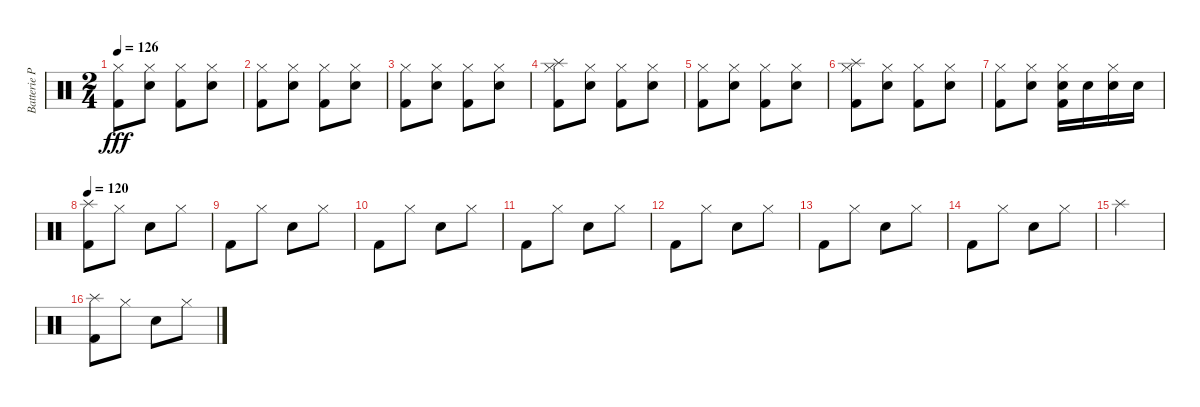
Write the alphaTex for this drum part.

\track ("Batterie Pako" "Batterie P") {instrument percussion}
\staff {score}
\articulation defaults
\ts (2 4)
\tempo 126
\clef neutral
\ks c
("Hi-Hat (closed)" "Kick (hit) 2").8{dy fff} ("Hi-Hat (closed)" "Electric Snare (hit)").8 ("Hi-Hat (closed)" "Kick (hit) 2").8 ("Hi-Hat (closed)" "Electric Snare (hit)").8 |
("Hi-Hat (closed)" "Kick (hit) 2").8 ("Hi-Hat (closed)" "Electric Snare (hit)").8 ("Hi-Hat (closed)" "Kick (hit) 2").8 ("Hi-Hat (closed)" "Electric Snare (hit)").8 |
("Hi-Hat (closed)" "Kick (hit) 2").8 ("Hi-Hat (closed)" "Electric Snare (hit)").8 ("Hi-Hat (closed)" "Kick (hit) 2").8 ("Hi-Hat (closed)" "Electric Snare (hit)").8 |
("Splash (hit)" "Hi-Hat (closed)" "Kick (hit) 2").8 ("Hi-Hat (closed)" "Electric Snare (hit)").8 ("Hi-Hat (closed)" "Kick (hit) 2").8 ("Hi-Hat (closed)" "Electric Snare (hit)").8 |
("Hi-Hat (closed)" "Kick (hit) 2").8 ("Hi-Hat (closed)" "Electric Snare (hit)").8 ("Hi-Hat (closed)" "Kick (hit) 2").8 ("Hi-Hat (closed)" "Electric Snare (hit)").8 |
("Splash (hit)" "Hi-Hat (closed)" "Kick (hit) 2").8 ("Hi-Hat (closed)" "Electric Snare (hit)").8 ("Hi-Hat (closed)" "Kick (hit) 2").8 ("Hi-Hat (closed)" "Electric Snare (hit)").8 |
("Hi-Hat (closed)" "Kick (hit) 2").8 ("Hi-Hat (closed)" "Electric Snare (hit)").8 ("Electric Snare (hit)" "Hi-Hat (closed)" "Kick (hit) 2").16 "Electric Snare (hit)".16 ("Electric Snare (hit)" "Hi-Hat (closed)").16 "Electric Snare (hit)".16 |
\tempo 120
("Kick (hit) 2" "Splash (hit)").8 "Hi-Hat (closed)".8 "Electric Snare (hit)".8 "Hi-Hat (closed)".8 |
"Kick (hit) 2".8 "Hi-Hat (closed)".8 "Electric Snare (hit)".8 "Hi-Hat (closed)".8 |
"Kick (hit) 2".8 "Hi-Hat (closed)".8 "Electric Snare (hit)".8 "Hi-Hat (closed)".8 |
"Kick (hit) 2".8 "Hi-Hat (closed)".8 "Electric Snare (hit)".8 "Hi-Hat (closed)".8 |
"Kick (hit) 2".8 "Hi-Hat (closed)".8 "Electric Snare (hit)".8 "Hi-Hat (closed)".8 |
"Kick (hit) 2".8 "Hi-Hat (closed)".8 "Electric Snare (hit)".8 "Hi-Hat (closed)".8 |
"Kick (hit) 2".8 "Hi-Hat (closed)".8 "Electric Snare (hit)".8 "Hi-Hat (closed)".8 |
"Splash (hit)".2 |
("Kick (hit) 2" "Splash (hit)").8 "Hi-Hat (closed)".8 "Electric Snare (hit)".8 "Hi-Hat (closed)".8
